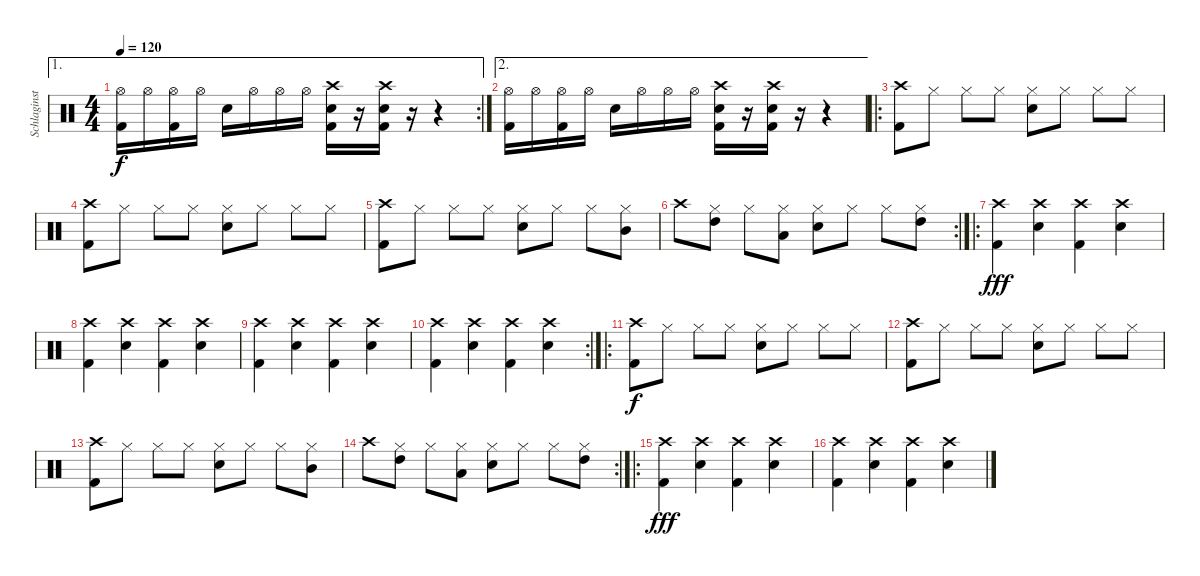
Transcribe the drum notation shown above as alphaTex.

\track ("Schlaginstrumente - Auswahl" "Schlaginst") {instrument percussion}
\staff {score}
\articulation defaults
\ae 1
\rc 2
\ts (4 4)
\tempo 120
\clef neutral
\ks c
("Hi-Hat (open)" "Kick (hit) 2").16{dy f} "Hi-Hat (open)".16 ("Hi-Hat (open)" "Kick (hit) 2").16 "Hi-Hat (open)".16 "Electric Snare (hit)".16 "Hi-Hat (open)".16 "Hi-Hat (open)".16 "Hi-Hat (open)".16 ("Crash high (hit)" "Electric Snare (hit)" "Kick (hit) 2").16 r.16 ("Crash high (hit)" "Electric Snare (hit)" "Kick (hit) 2").16 r.16 r.4 |
\ae 2
("Hi-Hat (open)" "Kick (hit) 2").16 "Hi-Hat (open)".16 ("Hi-Hat (open)" "Kick (hit) 2").16 "Hi-Hat (open)".16 "Electric Snare (hit)".16 "Hi-Hat (open)".16 "Hi-Hat (open)".16 "Hi-Hat (open)".16 ("Crash high (hit)" "Electric Snare (hit)" "Kick (hit) 2").16 r.16 ("Crash high (hit)" "Electric Snare (hit)" "Kick (hit) 2").16 r.16 r.4 |
\ro
("Crash high (hit)" "Kick (hit) 2").8 "Hi-Hat (closed)".8 "Hi-Hat (closed)".8 "Hi-Hat (closed)".8 ("Hi-Hat (closed)" "Electric Snare (hit)").8 "Hi-Hat (closed)".8 "Hi-Hat (closed)".8 "Hi-Hat (closed)".8 |
("Crash high (hit)" "Kick (hit) 2").8 "Hi-Hat (closed)".8 "Hi-Hat (closed)".8 "Hi-Hat (closed)".8 ("Hi-Hat (closed)" "Electric Snare (hit)").8 "Hi-Hat (closed)".8 "Hi-Hat (closed)".8 "Hi-Hat (closed)".8 |
("Crash high (hit)" "Kick (hit) 2").8 "Hi-Hat (closed)".8 "Hi-Hat (closed)".8 "Hi-Hat (closed)".8 ("Hi-Hat (closed)" "Electric Snare (hit)").8 "Hi-Hat (closed)".8 "Hi-Hat (closed)".8 ("Hi-Hat (closed)" "Mid Tom (hit)").8 |
\rc 2 "Crash high (hit)".8
("Hi-Hat (closed)" "High Tom (hit)").8 "Hi-Hat (closed)".8 ("Hi-Hat (closed)" "Low Tom (hit)").8 ("Hi-Hat (closed)" "Electric Snare (hit)").8 "Hi-Hat (closed)".8 "Hi-Hat (closed)".8 ("Hi-Hat (closed)" "High Tom (hit)").8 |
\ro
("Crash high (hit)" "Kick (hit) 2").4{dy fff volume 16} ("Crash high (hit)" "Electric Snare (hit)").4 ("Crash high (hit)" "Kick (hit) 2").4 ("Crash high (hit)" "Electric Snare (hit)").4 |
("Crash high (hit)" "Kick (hit) 2").4 ("Crash high (hit)" "Electric Snare (hit)").4 ("Crash high (hit)" "Kick (hit) 2").4 ("Crash high (hit)" "Electric Snare (hit)").4 |
("Crash high (hit)" "Kick (hit) 2").4 ("Crash high (hit)" "Electric Snare (hit)").4 ("Crash high (hit)" "Kick (hit) 2").4 ("Crash high (hit)" "Electric Snare (hit)").4 |
\rc 2
("Crash high (hit)" "Kick (hit) 2").4 ("Crash high (hit)" "Electric Snare (hit)").4 ("Crash high (hit)" "Kick (hit) 2").4 ("Crash high (hit)" "Electric Snare (hit)").4 |
\ro
("Crash high (hit)" "Kick (hit) 2").8{dy f} "Hi-Hat (closed)".8 "Hi-Hat (closed)".8 "Hi-Hat (closed)".8 ("Hi-Hat (closed)" "Electric Snare (hit)").8 "Hi-Hat (closed)".8 "Hi-Hat (closed)".8 "Hi-Hat (closed)".8 |
("Crash high (hit)" "Kick (hit) 2").8 "Hi-Hat (closed)".8 "Hi-Hat (closed)".8 "Hi-Hat (closed)".8 ("Hi-Hat (closed)" "Electric Snare (hit)").8 "Hi-Hat (closed)".8 "Hi-Hat (closed)".8 "Hi-Hat (closed)".8 |
("Crash high (hit)" "Kick (hit) 2").8 "Hi-Hat (closed)".8 "Hi-Hat (closed)".8 "Hi-Hat (closed)".8 ("Hi-Hat (closed)" "Electric Snare (hit)").8 "Hi-Hat (closed)".8 "Hi-Hat (closed)".8 ("Hi-Hat (closed)" "Mid Tom (hit)").8 |
\rc 2 "Crash high (hit)".8
("Hi-Hat (closed)" "High Tom (hit)").8 "Hi-Hat (closed)".8 ("Hi-Hat (closed)" "Low Tom (hit)").8 ("Hi-Hat (closed)" "Electric Snare (hit)").8 "Hi-Hat (closed)".8 "Hi-Hat (closed)".8 ("Hi-Hat (closed)" "High Tom (hit)").8 |
\ro
("Crash high (hit)" "Kick (hit) 2").4{dy fff volume 16} ("Crash high (hit)" "Electric Snare (hit)").4 ("Crash high (hit)" "Kick (hit) 2").4 ("Crash high (hit)" "Electric Snare (hit)").4 |
("Crash high (hit)" "Kick (hit) 2").4 ("Crash high (hit)" "Electric Snare (hit)").4 ("Crash high (hit)" "Kick (hit) 2").4 ("Crash high (hit)" "Electric Snare (hit)").4
